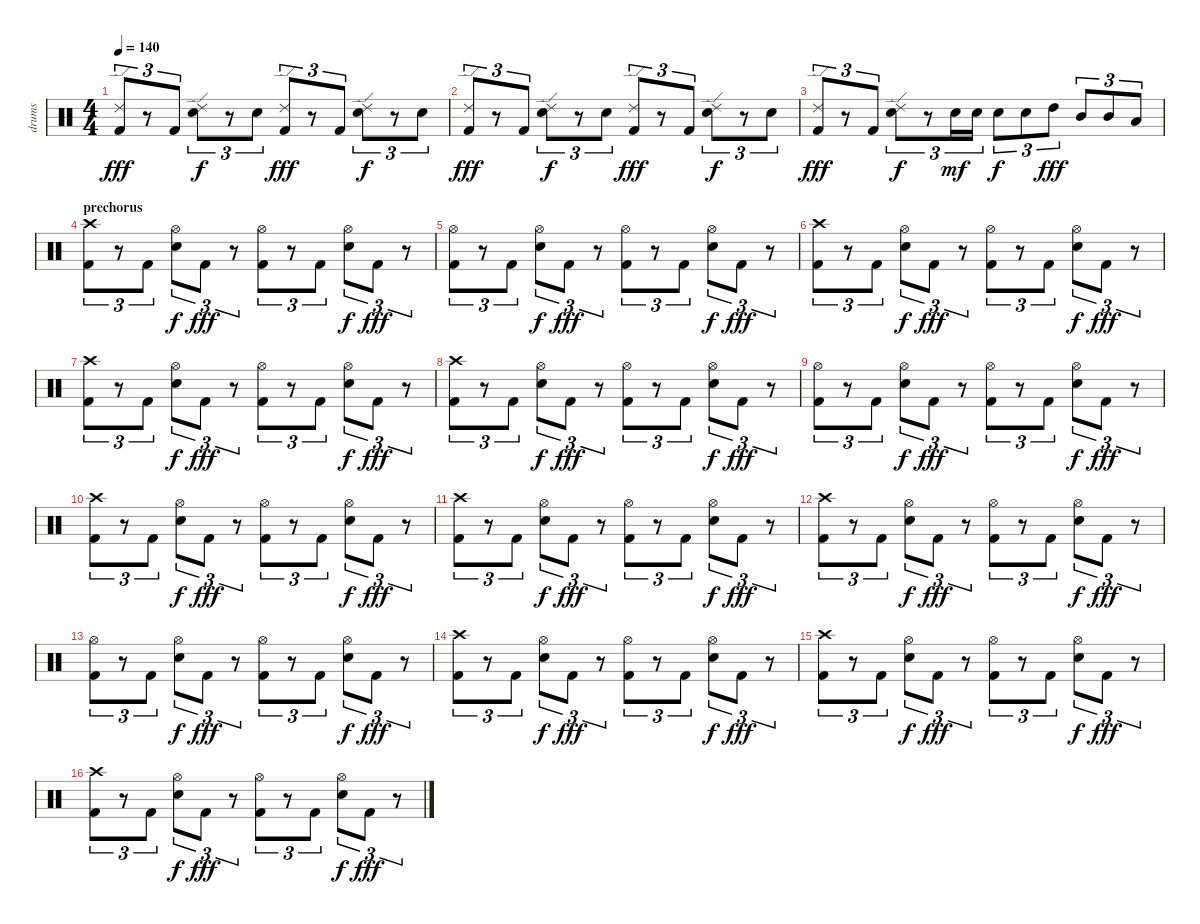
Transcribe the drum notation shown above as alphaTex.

\track ("drums" "drums") {instrument percussion}
\staff {score}
\articulation defaults
\ts (4 4)
\tempo 140
\clef neutral
\ks c
("Ride (edge) 2" "Kick (hit) 2").8{tu (3 2) dy fff} r.8{tu (3 2)} "Kick (hit) 2".8{tu (3 2)} ("Ride (edge) 2" "Snare (hit) 2").8{tu (3 2) dy f} r.8{tu (3 2)} "Snare (hit) 2".8{tu (3 2)} ("Ride (edge) 2" "Kick (hit) 2").8{tu (3 2) dy fff} r.8{tu (3 2)} "Kick (hit) 2".8{tu (3 2)} ("Ride (edge) 2" "Snare (hit) 2").8{tu (3 2) dy f} r.8{tu (3 2)} "Snare (hit) 2".8{tu (3 2)} |
("Ride (edge) 2" "Kick (hit) 2").8{tu (3 2) dy fff} r.8{tu (3 2)} "Kick (hit) 2".8{tu (3 2)} ("Ride (edge) 2" "Snare (hit) 2").8{tu (3 2) dy f} r.8{tu (3 2)} "Snare (hit) 2".8{tu (3 2)} ("Ride (edge) 2" "Kick (hit) 2").8{tu (3 2) dy fff} r.8{tu (3 2)} "Kick (hit) 2".8{tu (3 2)} ("Ride (edge) 2" "Snare (hit) 2").8{tu (3 2) dy f} r.8{tu (3 2)} "Snare (hit) 2".8{tu (3 2)} |
("Ride (edge) 2" "Kick (hit) 2").8{tu (3 2) dy fff} r.8{tu (3 2)} "Kick (hit) 2".8{tu (3 2)} ("Ride (edge) 2" "Snare (hit) 2").8{tu (3 2) dy f} r.8{tu (3 2)} "Snare (hit) 2".16{tu (3 2) dy mf} "Snare (hit) 2".16{tu (3 2)} "Snare (hit) 2".8{tu (3 2) dy f} "Snare (hit) 2".8{tu (3 2)} "High Tom (hit)".8{tu (3 2) dy fff} "Mid Tom (hit)".8{tu (3 2)} "Mid Tom (hit)".8{tu (3 2)} "Low Tom (hit)".8{tu (3 2)} |
\section ("" "prechorus")
("Crash high (hit)" "Kick (hit) 2").8{tu (3 2)} r.8{tu (3 2)} "Kick (hit) 2".8{tu (3 2)} ("Hi-Hat (open)" "Snare (hit) 2").8{tu (3 2) dy f} "Kick (hit) 2".8{tu (3 2) dy fff} r.8{tu (3 2)} ("Hi-Hat (open)" "Kick (hit) 2").8{tu (3 2)} r.8{tu (3 2)} "Kick (hit) 2".8{tu (3 2)} ("Hi-Hat (open)" "Snare (hit) 2").8{tu (3 2) dy f} "Kick (hit) 2".8{tu (3 2) dy fff} r.8{tu (3 2)} |
("Hi-Hat (open)" "Kick (hit) 2").8{tu (3 2)} r.8{tu (3 2)} "Kick (hit) 2".8{tu (3 2)} ("Hi-Hat (open)" "Snare (hit) 2").8{tu (3 2) dy f} "Kick (hit) 2".8{tu (3 2) dy fff} r.8{tu (3 2)} ("Hi-Hat (open)" "Kick (hit) 2").8{tu (3 2)} r.8{tu (3 2)} "Kick (hit) 2".8{tu (3 2)} ("Hi-Hat (open)" "Snare (hit) 2").8{tu (3 2) dy f} "Kick (hit) 2".8{tu (3 2) dy fff} r.8{tu (3 2)} |
("Crash high (hit)" "Kick (hit) 2").8{tu (3 2)} r.8{tu (3 2)} "Kick (hit) 2".8{tu (3 2)} ("Hi-Hat (open)" "Snare (hit) 2").8{tu (3 2) dy f} "Kick (hit) 2".8{tu (3 2) dy fff} r.8{tu (3 2)} ("Hi-Hat (open)" "Kick (hit) 2").8{tu (3 2)} r.8{tu (3 2)} "Kick (hit) 2".8{tu (3 2)} ("Hi-Hat (open)" "Snare (hit) 2").8{tu (3 2) dy f} "Kick (hit) 2".8{tu (3 2) dy fff} r.8{tu (3 2)} |
("Crash high (hit)" "Kick (hit) 2").8{tu (3 2)} r.8{tu (3 2)} "Kick (hit) 2".8{tu (3 2)} ("Hi-Hat (open)" "Snare (hit) 2").8{tu (3 2) dy f} "Kick (hit) 2".8{tu (3 2) dy fff} r.8{tu (3 2)} ("Hi-Hat (open)" "Kick (hit) 2").8{tu (3 2)} r.8{tu (3 2)} "Kick (hit) 2".8{tu (3 2)} ("Hi-Hat (open)" "Snare (hit) 2").8{tu (3 2) dy f} "Kick (hit) 2".8{tu (3 2) dy fff} r.8{tu (3 2)} |
("Crash high (hit)" "Kick (hit) 2").8{tu (3 2)} r.8{tu (3 2)} "Kick (hit) 2".8{tu (3 2)} ("Hi-Hat (open)" "Snare (hit) 2").8{tu (3 2) dy f} "Kick (hit) 2".8{tu (3 2) dy fff} r.8{tu (3 2)} ("Hi-Hat (open)" "Kick (hit) 2").8{tu (3 2)} r.8{tu (3 2)} "Kick (hit) 2".8{tu (3 2)} ("Hi-Hat (open)" "Snare (hit) 2").8{tu (3 2) dy f} "Kick (hit) 2".8{tu (3 2) dy fff} r.8{tu (3 2)} |
("Hi-Hat (open)" "Kick (hit) 2").8{tu (3 2)} r.8{tu (3 2)} "Kick (hit) 2".8{tu (3 2)} ("Hi-Hat (open)" "Snare (hit) 2").8{tu (3 2) dy f} "Kick (hit) 2".8{tu (3 2) dy fff} r.8{tu (3 2)} ("Hi-Hat (open)" "Kick (hit) 2").8{tu (3 2)} r.8{tu (3 2)} "Kick (hit) 2".8{tu (3 2)} ("Hi-Hat (open)" "Snare (hit) 2").8{tu (3 2) dy f} "Kick (hit) 2".8{tu (3 2) dy fff} r.8{tu (3 2)} |
("Crash high (hit)" "Kick (hit) 2").8{tu (3 2)} r.8{tu (3 2)} "Kick (hit) 2".8{tu (3 2)} ("Hi-Hat (open)" "Snare (hit) 2").8{tu (3 2) dy f} "Kick (hit) 2".8{tu (3 2) dy fff} r.8{tu (3 2)} ("Hi-Hat (open)" "Kick (hit) 2").8{tu (3 2)} r.8{tu (3 2)} "Kick (hit) 2".8{tu (3 2)} ("Hi-Hat (open)" "Snare (hit) 2").8{tu (3 2) dy f} "Kick (hit) 2".8{tu (3 2) dy fff} r.8{tu (3 2)} |
("Crash high (hit)" "Kick (hit) 2").8{tu (3 2)} r.8{tu (3 2)} "Kick (hit) 2".8{tu (3 2)} ("Hi-Hat (open)" "Snare (hit) 2").8{tu (3 2) dy f} "Kick (hit) 2".8{tu (3 2) dy fff} r.8{tu (3 2)} ("Hi-Hat (open)" "Kick (hit) 2").8{tu (3 2)} r.8{tu (3 2)} "Kick (hit) 2".8{tu (3 2)} ("Hi-Hat (open)" "Snare (hit) 2").8{tu (3 2) dy f} "Kick (hit) 2".8{tu (3 2) dy fff} r.8{tu (3 2)} |
("Crash high (hit)" "Kick (hit) 2").8{tu (3 2)} r.8{tu (3 2)} "Kick (hit) 2".8{tu (3 2)} ("Hi-Hat (open)" "Snare (hit) 2").8{tu (3 2) dy f} "Kick (hit) 2".8{tu (3 2) dy fff} r.8{tu (3 2)} ("Hi-Hat (open)" "Kick (hit) 2").8{tu (3 2)} r.8{tu (3 2)} "Kick (hit) 2".8{tu (3 2)} ("Hi-Hat (open)" "Snare (hit) 2").8{tu (3 2) dy f} "Kick (hit) 2".8{tu (3 2) dy fff} r.8{tu (3 2)} |
("Hi-Hat (open)" "Kick (hit) 2").8{tu (3 2)} r.8{tu (3 2)} "Kick (hit) 2".8{tu (3 2)} ("Hi-Hat (open)" "Snare (hit) 2").8{tu (3 2) dy f} "Kick (hit) 2".8{tu (3 2) dy fff} r.8{tu (3 2)} ("Hi-Hat (open)" "Kick (hit) 2").8{tu (3 2)} r.8{tu (3 2)} "Kick (hit) 2".8{tu (3 2)} ("Hi-Hat (open)" "Snare (hit) 2").8{tu (3 2) dy f} "Kick (hit) 2".8{tu (3 2) dy fff} r.8{tu (3 2)} |
("Crash high (hit)" "Kick (hit) 2").8{tu (3 2)} r.8{tu (3 2)} "Kick (hit) 2".8{tu (3 2)} ("Hi-Hat (open)" "Snare (hit) 2").8{tu (3 2) dy f} "Kick (hit) 2".8{tu (3 2) dy fff} r.8{tu (3 2)} ("Hi-Hat (open)" "Kick (hit) 2").8{tu (3 2)} r.8{tu (3 2)} "Kick (hit) 2".8{tu (3 2)} ("Hi-Hat (open)" "Snare (hit) 2").8{tu (3 2) dy f} "Kick (hit) 2".8{tu (3 2) dy fff} r.8{tu (3 2)} |
("Crash high (hit)" "Kick (hit) 2").8{tu (3 2)} r.8{tu (3 2)} "Kick (hit) 2".8{tu (3 2)} ("Hi-Hat (open)" "Snare (hit) 2").8{tu (3 2) dy f} "Kick (hit) 2".8{tu (3 2) dy fff} r.8{tu (3 2)} ("Hi-Hat (open)" "Kick (hit) 2").8{tu (3 2)} r.8{tu (3 2)} "Kick (hit) 2".8{tu (3 2)} ("Hi-Hat (open)" "Snare (hit) 2").8{tu (3 2) dy f} "Kick (hit) 2".8{tu (3 2) dy fff} r.8{tu (3 2)} |
("Crash high (hit)" "Kick (hit) 2").8{tu (3 2)} r.8{tu (3 2)} "Kick (hit) 2".8{tu (3 2)} ("Hi-Hat (open)" "Snare (hit) 2").8{tu (3 2) dy f} "Kick (hit) 2".8{tu (3 2) dy fff} r.8{tu (3 2)} ("Hi-Hat (open)" "Kick (hit) 2").8{tu (3 2)} r.8{tu (3 2)} "Kick (hit) 2".8{tu (3 2)} ("Hi-Hat (open)" "Snare (hit) 2").8{tu (3 2) dy f} "Kick (hit) 2".8{tu (3 2) dy fff} r.8{tu (3 2)}
